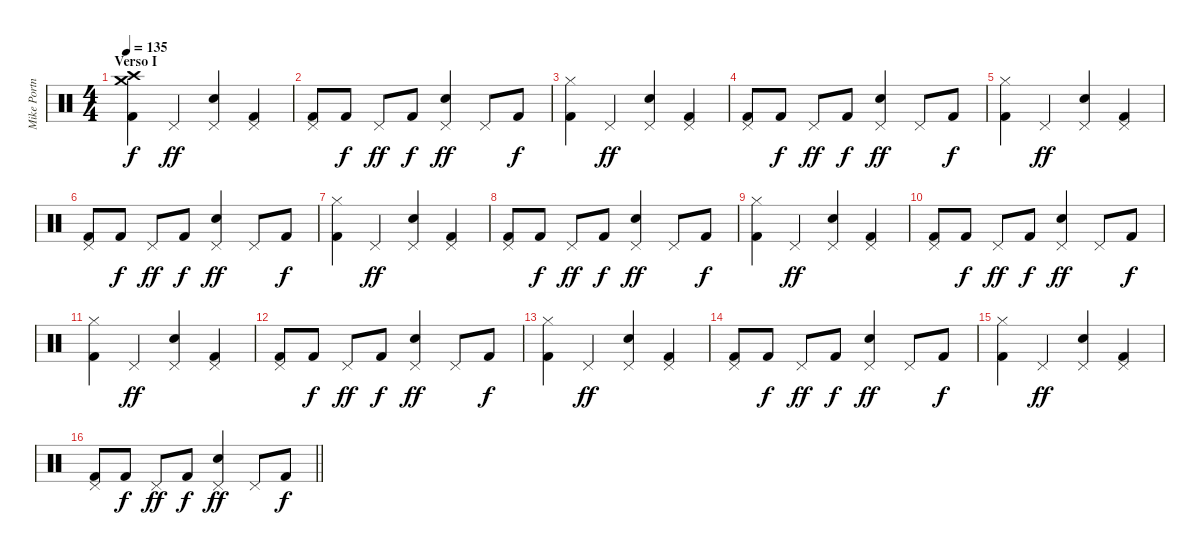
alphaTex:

\track ("Mike Portnoy" "Mike Portn") {instrument percussion}
\staff {score}
\articulation defaults
\ts (4 4)
\section ("" "Verso I")
\tempo 135
\clef neutral
\ks c
("Crash high (hit)" "Crash medium (hit)" "Kick (hit) 2").4{dy f} "Pedal Hi-Hat (hit)".4{dy ff} ("Pedal Hi-Hat (hit)" "Electric Snare (hit)").4 ("Pedal Hi-Hat (hit)" "Kick (hit) 2").4 |
("Pedal Hi-Hat (hit)" "Kick (hit) 2").8 "Kick (hit) 2".8{dy f} "Pedal Hi-Hat (hit)".8{dy ff} "Kick (hit) 2".8{dy f} ("Pedal Hi-Hat (hit)" "Electric Snare (hit)").4{dy ff} "Pedal Hi-Hat (hit)".8 "Kick (hit) 2".8{dy f} |
("Hi-Hat (closed)" "Kick (hit) 2").4 "Pedal Hi-Hat (hit)".4{dy ff} ("Pedal Hi-Hat (hit)" "Electric Snare (hit)").4 ("Pedal Hi-Hat (hit)" "Kick (hit) 2").4 |
("Pedal Hi-Hat (hit)" "Kick (hit) 2").8 "Kick (hit) 2".8{dy f} "Pedal Hi-Hat (hit)".8{dy ff} "Kick (hit) 2".8{dy f} ("Pedal Hi-Hat (hit)" "Electric Snare (hit)").4{dy ff} "Pedal Hi-Hat (hit)".8 "Kick (hit) 2".8{dy f} |
("Hi-Hat (closed)" "Kick (hit) 2").4 "Pedal Hi-Hat (hit)".4{dy ff} ("Pedal Hi-Hat (hit)" "Electric Snare (hit)").4 ("Pedal Hi-Hat (hit)" "Kick (hit) 2").4 |
("Pedal Hi-Hat (hit)" "Kick (hit) 2").8 "Kick (hit) 2".8{dy f} "Pedal Hi-Hat (hit)".8{dy ff} "Kick (hit) 2".8{dy f} ("Pedal Hi-Hat (hit)" "Electric Snare (hit)").4{dy ff} "Pedal Hi-Hat (hit)".8 "Kick (hit) 2".8{dy f} |
("Hi-Hat (closed)" "Kick (hit) 2").4 "Pedal Hi-Hat (hit)".4{dy ff} ("Pedal Hi-Hat (hit)" "Electric Snare (hit)").4 ("Pedal Hi-Hat (hit)" "Kick (hit) 2").4 |
("Pedal Hi-Hat (hit)" "Kick (hit) 2").8 "Kick (hit) 2".8{dy f} "Pedal Hi-Hat (hit)".8{dy ff} "Kick (hit) 2".8{dy f} ("Pedal Hi-Hat (hit)" "Electric Snare (hit)").4{dy ff} "Pedal Hi-Hat (hit)".8 "Kick (hit) 2".8{dy f} |
("Hi-Hat (closed)" "Kick (hit) 2").4 "Pedal Hi-Hat (hit)".4{dy ff} ("Pedal Hi-Hat (hit)" "Electric Snare (hit)").4 ("Pedal Hi-Hat (hit)" "Kick (hit) 2").4 |
("Pedal Hi-Hat (hit)" "Kick (hit) 2").8 "Kick (hit) 2".8{dy f} "Pedal Hi-Hat (hit)".8{dy ff} "Kick (hit) 2".8{dy f} ("Pedal Hi-Hat (hit)" "Electric Snare (hit)").4{dy ff} "Pedal Hi-Hat (hit)".8 "Kick (hit) 2".8{dy f} |
("Hi-Hat (closed)" "Kick (hit) 2").4 "Pedal Hi-Hat (hit)".4{dy ff} ("Pedal Hi-Hat (hit)" "Electric Snare (hit)").4 ("Pedal Hi-Hat (hit)" "Kick (hit) 2").4 |
("Pedal Hi-Hat (hit)" "Kick (hit) 2").8 "Kick (hit) 2".8{dy f} "Pedal Hi-Hat (hit)".8{dy ff} "Kick (hit) 2".8{dy f} ("Pedal Hi-Hat (hit)" "Electric Snare (hit)").4{dy ff} "Pedal Hi-Hat (hit)".8 "Kick (hit) 2".8{dy f} |
("Hi-Hat (closed)" "Kick (hit) 2").4 "Pedal Hi-Hat (hit)".4{dy ff} ("Pedal Hi-Hat (hit)" "Electric Snare (hit)").4 ("Pedal Hi-Hat (hit)" "Kick (hit) 2").4 |
("Pedal Hi-Hat (hit)" "Kick (hit) 2").8 "Kick (hit) 2".8{dy f} "Pedal Hi-Hat (hit)".8{dy ff} "Kick (hit) 2".8{dy f} ("Pedal Hi-Hat (hit)" "Electric Snare (hit)").4{dy ff} "Pedal Hi-Hat (hit)".8 "Kick (hit) 2".8{dy f} |
("Hi-Hat (closed)" "Kick (hit) 2").4 "Pedal Hi-Hat (hit)".4{dy ff} ("Pedal Hi-Hat (hit)" "Electric Snare (hit)").4 ("Pedal Hi-Hat (hit)" "Kick (hit) 2").4 |
\barLineRight lightlight
("Pedal Hi-Hat (hit)" "Kick (hit) 2").8 "Kick (hit) 2".8{dy f} "Pedal Hi-Hat (hit)".8{dy ff} "Kick (hit) 2".8{dy f} ("Pedal Hi-Hat (hit)" "Electric Snare (hit)").4{dy ff} "Pedal Hi-Hat (hit)".8 "Kick (hit) 2".8{dy f}
